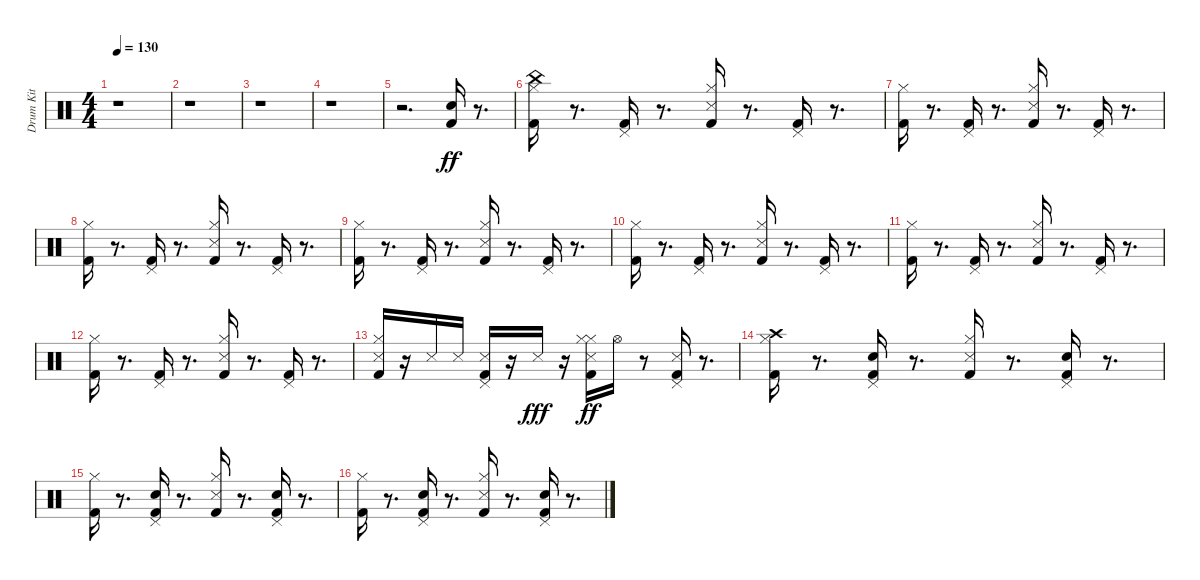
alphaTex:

\track ("Drum Kit" "Drum Kit") {instrument percussion}
\staff {score}
\articulation defaults
\ts (4 4)
\tempo 130
\clef neutral
\ks c
r.1{dy ff} |
r.1 |
r.1 |
r.1 |
r.2{d} ("Kick (hit) 2" "Electric Snare (hit)").16 r.8{d} |
("Kick (hit) 2" "Hi-Hat (closed)" "China (hit)").16 r.8{d} ("Kick (hit) 2" "Pedal Hi-Hat (hit)").16 r.8{d} ("Kick (hit) 2" "Snare (side stick) 3" "Hi-Hat (closed)").16 r.8{d} ("Kick (hit) 2" "Pedal Hi-Hat (hit)").16 r.8{d} |
("Kick (hit) 2" "Hi-Hat (closed)").16 r.8{d} ("Kick (hit) 2" "Pedal Hi-Hat (hit)").16 r.8{d} ("Kick (hit) 2" "Snare (side stick) 3" "Hi-Hat (closed)").16 r.8{d} ("Kick (hit) 2" "Pedal Hi-Hat (hit)").16 r.8{d} |
("Kick (hit) 2" "Hi-Hat (closed)").16 r.8{d} ("Kick (hit) 2" "Pedal Hi-Hat (hit)").16 r.8{d} ("Kick (hit) 2" "Snare (side stick) 3" "Hi-Hat (closed)").16 r.8{d} ("Kick (hit) 2" "Pedal Hi-Hat (hit)").16 r.8{d} |
("Kick (hit) 2" "Hi-Hat (closed)").16 r.8{d} ("Kick (hit) 2" "Pedal Hi-Hat (hit)").16 r.8{d} ("Kick (hit) 2" "Snare (side stick) 3" "Hi-Hat (closed)").16 r.8{d} ("Kick (hit) 2" "Pedal Hi-Hat (hit)").16 r.8{d} |
("Kick (hit) 2" "Hi-Hat (closed)").16 r.8{d} ("Kick (hit) 2" "Pedal Hi-Hat (hit)").16 r.8{d} ("Kick (hit) 2" "Snare (side stick) 3" "Hi-Hat (closed)").16 r.8{d} ("Kick (hit) 2" "Pedal Hi-Hat (hit)").16 r.8{d} |
("Kick (hit) 2" "Hi-Hat (closed)").16 r.8{d} ("Kick (hit) 2" "Pedal Hi-Hat (hit)").16 r.8{d} ("Kick (hit) 2" "Snare (side stick) 3" "Hi-Hat (closed)").16 r.8{d} ("Kick (hit) 2" "Pedal Hi-Hat (hit)").16 r.8{d} |
("Kick (hit) 2" "Hi-Hat (closed)").16 r.8{d} ("Kick (hit) 2" "Pedal Hi-Hat (hit)").16 r.8{d} ("Kick (hit) 2" "Snare (side stick) 3" "Hi-Hat (closed)").16 r.8{d} ("Kick (hit) 2" "Pedal Hi-Hat (hit)").16 r.8{d} |
("Kick (hit) 2" "Snare (side stick) 3" "Hi-Hat (closed)").16 r.16 "Snare (side stick) 3".16 "Snare (side stick) 3".16 ("Kick (hit) 2" "Snare (side stick) 3" "Pedal Hi-Hat (hit)").16 r.16 "Snare (side stick) 3".16{dy fff} r.16 ("Kick (hit) 2" "Snare (side stick) 3" "Hi-Hat (closed)" "Hi-Hat (closed)").16{dy ff} "Hi-Hat (open)".16 r.8 ("Kick (hit) 2" "Snare (side stick) 3" "Pedal Hi-Hat (hit)").16 r.8{d} |
("Kick (hit) 2" "Hi-Hat (closed)" "Crash high (hit)").16 r.8{d} ("Kick (hit) 2" "Electric Snare (hit)" "Pedal Hi-Hat (hit)").16 r.8{d} ("Kick (hit) 2" "Snare (side stick) 3" "Hi-Hat (closed)").16 r.8{d} ("Kick (hit) 2" "Electric Snare (hit)" "Pedal Hi-Hat (hit)").16 r.8{d} |
("Kick (hit) 2" "Hi-Hat (closed)").16 r.8{d} ("Kick (hit) 2" "Electric Snare (hit)" "Pedal Hi-Hat (hit)").16 r.8{d} ("Kick (hit) 2" "Snare (side stick) 3" "Hi-Hat (closed)").16 r.8{d} ("Kick (hit) 2" "Electric Snare (hit)" "Pedal Hi-Hat (hit)").16 r.8{d} |
("Kick (hit) 2" "Hi-Hat (closed)").16 r.8{d} ("Kick (hit) 2" "Electric Snare (hit)" "Pedal Hi-Hat (hit)").16 r.8{d} ("Kick (hit) 2" "Snare (side stick) 3" "Hi-Hat (closed)").16 r.8{d} ("Kick (hit) 2" "Electric Snare (hit)" "Pedal Hi-Hat (hit)").16 r.8{d}
